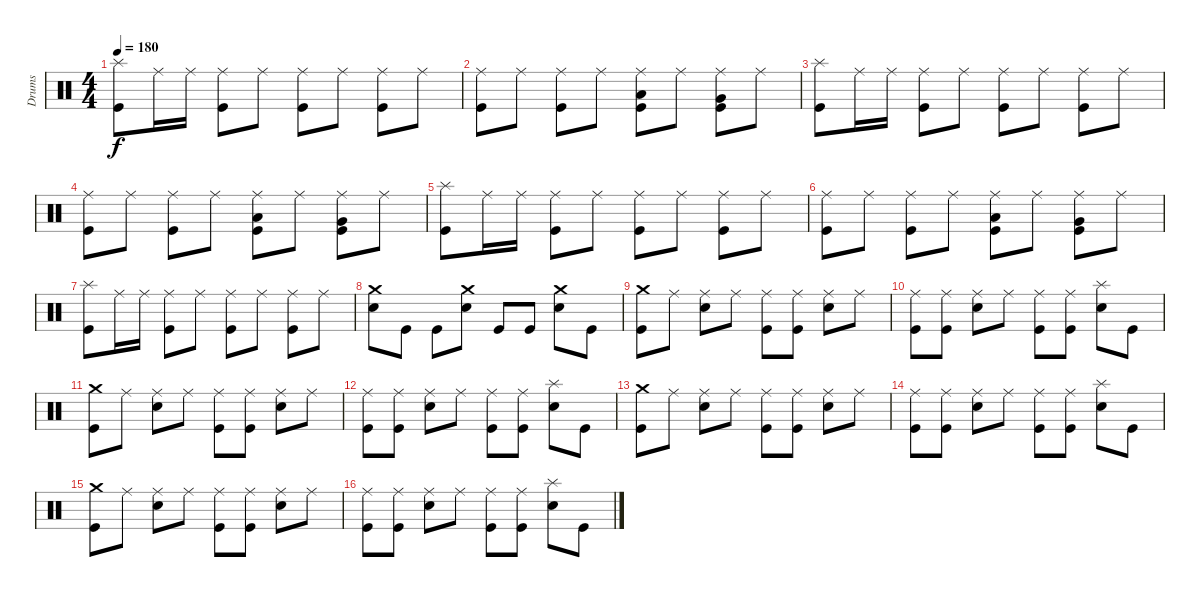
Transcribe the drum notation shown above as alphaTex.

\track ("Drums" "Drums") {instrument percussion}
\staff {score}
\articulation defaults
\ts (4 4)
\tempo 180
\clef neutral
\ks c
("Splash (hit)" "Kick (hit)").8{dy f} "Ride (middle)".16 "Ride (middle)".16 ("Ride (middle)" "Kick (hit)").8 "Ride (middle)".8 ("Ride (middle)" "Kick (hit)").8 "Ride (middle)".8 ("Ride (middle)" "Kick (hit)").8 "Ride (middle)".8 |
("Ride (middle)" "Kick (hit)").8 "Ride (middle)".8 ("Ride (middle)" "Kick (hit)").8 "Ride (middle)".8 ("Ride (middle)" "Low Tom (hit)" "Kick (hit)").8 "Ride (middle)".8 ("Ride (middle)" "Very Low Tom (hit)" "Kick (hit)").8 "Ride (middle)".8 |
("Splash (hit)" "Kick (hit)").8 "Ride (middle)".16 "Ride (middle)".16 ("Ride (middle)" "Kick (hit)").8 "Ride (middle)".8 ("Ride (middle)" "Kick (hit)").8 "Ride (middle)".8 ("Ride (middle)" "Kick (hit)").8 "Ride (middle)".8 |
("Ride (middle)" "Kick (hit)").8 "Ride (middle)".8 ("Ride (middle)" "Kick (hit)").8 "Ride (middle)".8 ("Ride (middle)" "Low Tom (hit)" "Kick (hit)").8 "Ride (middle)".8 ("Ride (middle)" "Very Low Tom (hit)" "Kick (hit)").8 "Ride (middle)".8 |
("Splash (hit)" "Kick (hit)").8 "Ride (middle)".16 "Ride (middle)".16 ("Ride (middle)" "Kick (hit)").8 "Ride (middle)".8 ("Ride (middle)" "Kick (hit)").8 "Ride (middle)".8 ("Ride (middle)" "Kick (hit)").8 "Ride (middle)".8 |
("Ride (middle)" "Kick (hit)").8 "Ride (middle)".8 ("Ride (middle)" "Kick (hit)").8 "Ride (middle)".8 ("Ride (middle)" "Low Tom (hit)" "Kick (hit)").8 "Ride (middle)".8 ("Ride (middle)" "Very Low Tom (hit)" "Kick (hit)").8 "Ride (middle)".8 |
("Splash (hit)" "Kick (hit)").8 "Ride (middle)".16 "Ride (middle)".16 ("Ride (middle)" "Kick (hit)").8 "Ride (middle)".8 ("Ride (middle)" "Kick (hit)").8 "Ride (middle)".8 ("Ride (middle)" "Kick (hit)").8 "Ride (middle)".8 |
("Crash medium (hit)" "Electric Snare (hit)").8 "Kick (hit)".8 "Kick (hit)".8 ("Crash medium (hit)" "Electric Snare (hit)").8 "Kick (hit)".8 "Kick (hit)".8 ("Crash medium (hit)" "Electric Snare (hit)").8 "Kick (hit)".8 |
("Crash medium (hit)" "Kick (hit)").8 "Ride (middle)".8 ("Ride (middle)" "Electric Snare (hit)").8 "Ride (middle)".8 ("Ride (middle)" "Kick (hit)").8 ("Ride (middle)" "Kick (hit)").8 ("Ride (middle)" "Electric Snare (hit)").8 "Ride (middle)".8 |
("Ride (middle)" "Kick (hit)").8 ("Ride (middle)" "Kick (hit)").8 ("Ride (middle)" "Electric Snare (hit)").8 "Ride (middle)".8 ("Ride (middle)" "Kick (hit)").8 ("Ride (middle)" "Kick (hit)").8 ("Splash (hit)" "Electric Snare (hit)").8 "Kick (hit)".8 |
("Crash medium (hit)" "Kick (hit)").8 "Ride (middle)".8 ("Ride (middle)" "Electric Snare (hit)").8 "Ride (middle)".8 ("Ride (middle)" "Kick (hit)").8 ("Ride (middle)" "Kick (hit)").8 ("Ride (middle)" "Electric Snare (hit)").8 "Ride (middle)".8 |
("Ride (middle)" "Kick (hit)").8 ("Ride (middle)" "Kick (hit)").8 ("Ride (middle)" "Electric Snare (hit)").8 "Ride (middle)".8 ("Ride (middle)" "Kick (hit)").8 ("Ride (middle)" "Kick (hit)").8 ("Splash (hit)" "Electric Snare (hit)").8 "Kick (hit)".8 |
("Crash medium (hit)" "Kick (hit)").8 "Ride (middle)".8 ("Ride (middle)" "Electric Snare (hit)").8 "Ride (middle)".8 ("Ride (middle)" "Kick (hit)").8 ("Ride (middle)" "Kick (hit)").8 ("Ride (middle)" "Electric Snare (hit)").8 "Ride (middle)".8 |
("Ride (middle)" "Kick (hit)").8 ("Ride (middle)" "Kick (hit)").8 ("Ride (middle)" "Electric Snare (hit)").8 "Ride (middle)".8 ("Ride (middle)" "Kick (hit)").8 ("Ride (middle)" "Kick (hit)").8 ("Splash (hit)" "Electric Snare (hit)").8 "Kick (hit)".8 |
("Crash medium (hit)" "Kick (hit)").8 "Ride (middle)".8 ("Ride (middle)" "Electric Snare (hit)").8 "Ride (middle)".8 ("Ride (middle)" "Kick (hit)").8 ("Ride (middle)" "Kick (hit)").8 ("Ride (middle)" "Electric Snare (hit)").8 "Ride (middle)".8 |
("Ride (middle)" "Kick (hit)").8 ("Ride (middle)" "Kick (hit)").8 ("Ride (middle)" "Electric Snare (hit)").8 "Ride (middle)".8 ("Ride (middle)" "Kick (hit)").8 ("Ride (middle)" "Kick (hit)").8 ("Splash (hit)" "Electric Snare (hit)").8 "Kick (hit)".8
